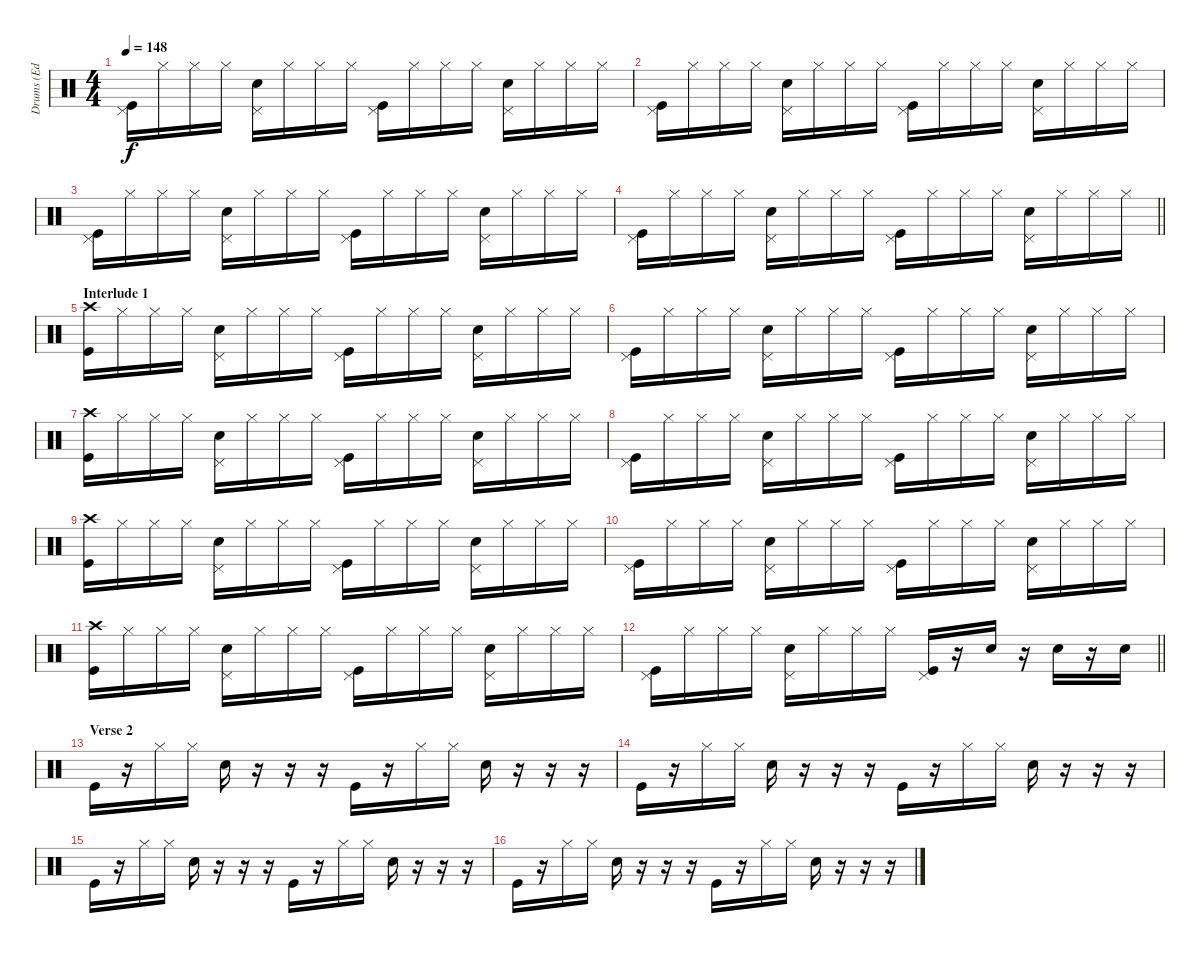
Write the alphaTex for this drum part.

\track ("Drums (Ed Lay)" "Drums (Ed ") {instrument percussion}
\staff {score}
\articulation defaults
\ts (4 4)
\tempo 148
\clef neutral
\ks c
("Pedal Hi-Hat (hit)" "Kick (hit)").16{dy f} "Hi-Hat (closed)".16 "Hi-Hat (closed)".16 "Hi-Hat (closed)".16 ("Pedal Hi-Hat (hit)" "Electric Snare (hit)").16 "Hi-Hat (closed)".16 "Hi-Hat (closed)".16 "Hi-Hat (closed)".16 ("Pedal Hi-Hat (hit)" "Kick (hit)").16 "Hi-Hat (closed)".16 "Hi-Hat (closed)".16 "Hi-Hat (closed)".16 ("Pedal Hi-Hat (hit)" "Electric Snare (hit)").16 "Hi-Hat (closed)".16 "Hi-Hat (closed)".16 "Hi-Hat (closed)".16 |
("Pedal Hi-Hat (hit)" "Kick (hit)").16 "Hi-Hat (closed)".16 "Hi-Hat (closed)".16 "Hi-Hat (closed)".16 ("Pedal Hi-Hat (hit)" "Electric Snare (hit)").16 "Hi-Hat (closed)".16 "Hi-Hat (closed)".16 "Hi-Hat (closed)".16 ("Pedal Hi-Hat (hit)" "Kick (hit)").16 "Hi-Hat (closed)".16 "Hi-Hat (closed)".16 "Hi-Hat (closed)".16 ("Pedal Hi-Hat (hit)" "Electric Snare (hit)").16 "Hi-Hat (closed)".16 "Hi-Hat (closed)".16 "Hi-Hat (closed)".16 |
("Pedal Hi-Hat (hit)" "Kick (hit)").16 "Hi-Hat (closed)".16 "Hi-Hat (closed)".16 "Hi-Hat (closed)".16 ("Pedal Hi-Hat (hit)" "Electric Snare (hit)").16 "Hi-Hat (closed)".16 "Hi-Hat (closed)".16 "Hi-Hat (closed)".16 ("Pedal Hi-Hat (hit)" "Kick (hit)").16 "Hi-Hat (closed)".16 "Hi-Hat (closed)".16 "Hi-Hat (closed)".16 ("Pedal Hi-Hat (hit)" "Electric Snare (hit)").16 "Hi-Hat (closed)".16 "Hi-Hat (closed)".16 "Hi-Hat (closed)".16 |
\barLineRight lightlight
("Pedal Hi-Hat (hit)" "Kick (hit)").16 "Hi-Hat (closed)".16 "Hi-Hat (closed)".16 "Hi-Hat (closed)".16 ("Pedal Hi-Hat (hit)" "Electric Snare (hit)").16 "Hi-Hat (closed)".16 "Hi-Hat (closed)".16 "Hi-Hat (closed)".16 ("Pedal Hi-Hat (hit)" "Kick (hit)").16 "Hi-Hat (closed)".16 "Hi-Hat (closed)".16 "Hi-Hat (closed)".16 ("Pedal Hi-Hat (hit)" "Electric Snare (hit)").16 "Hi-Hat (closed)".16 "Hi-Hat (closed)".16 "Hi-Hat (closed)".16 |
\section ("" "Interlude 1")
("Crash high (hit)" "Kick (hit)").16 "Hi-Hat (closed)".16 "Hi-Hat (closed)".16 "Hi-Hat (closed)".16 ("Pedal Hi-Hat (hit)" "Electric Snare (hit)").16 "Hi-Hat (closed)".16 "Hi-Hat (closed)".16 "Hi-Hat (closed)".16 ("Pedal Hi-Hat (hit)" "Kick (hit)").16 "Hi-Hat (closed)".16 "Hi-Hat (closed)".16 "Hi-Hat (closed)".16 ("Pedal Hi-Hat (hit)" "Electric Snare (hit)").16 "Hi-Hat (closed)".16 "Hi-Hat (closed)".16 "Hi-Hat (closed)".16 |
("Pedal Hi-Hat (hit)" "Kick (hit)").16 "Hi-Hat (closed)".16 "Hi-Hat (closed)".16 "Hi-Hat (closed)".16 ("Pedal Hi-Hat (hit)" "Electric Snare (hit)").16 "Hi-Hat (closed)".16 "Hi-Hat (closed)".16 "Hi-Hat (closed)".16 ("Pedal Hi-Hat (hit)" "Kick (hit)").16 "Hi-Hat (closed)".16 "Hi-Hat (closed)".16 "Hi-Hat (closed)".16 ("Pedal Hi-Hat (hit)" "Electric Snare (hit)").16 "Hi-Hat (closed)".16 "Hi-Hat (closed)".16 "Hi-Hat (closed)".16 |
("Crash high (hit)" "Kick (hit)").16 "Hi-Hat (closed)".16 "Hi-Hat (closed)".16 "Hi-Hat (closed)".16 ("Pedal Hi-Hat (hit)" "Electric Snare (hit)").16 "Hi-Hat (closed)".16 "Hi-Hat (closed)".16 "Hi-Hat (closed)".16 ("Pedal Hi-Hat (hit)" "Kick (hit)").16 "Hi-Hat (closed)".16 "Hi-Hat (closed)".16 "Hi-Hat (closed)".16 ("Pedal Hi-Hat (hit)" "Electric Snare (hit)").16 "Hi-Hat (closed)".16 "Hi-Hat (closed)".16 "Hi-Hat (closed)".16 |
("Pedal Hi-Hat (hit)" "Kick (hit)").16 "Hi-Hat (closed)".16 "Hi-Hat (closed)".16 "Hi-Hat (closed)".16 ("Pedal Hi-Hat (hit)" "Electric Snare (hit)").16 "Hi-Hat (closed)".16 "Hi-Hat (closed)".16 "Hi-Hat (closed)".16 ("Pedal Hi-Hat (hit)" "Kick (hit)").16 "Hi-Hat (closed)".16 "Hi-Hat (closed)".16 "Hi-Hat (closed)".16 ("Pedal Hi-Hat (hit)" "Electric Snare (hit)").16 "Hi-Hat (closed)".16 "Hi-Hat (closed)".16 "Hi-Hat (closed)".16 |
("Crash high (hit)" "Kick (hit)").16 "Hi-Hat (closed)".16 "Hi-Hat (closed)".16 "Hi-Hat (closed)".16 ("Pedal Hi-Hat (hit)" "Electric Snare (hit)").16 "Hi-Hat (closed)".16 "Hi-Hat (closed)".16 "Hi-Hat (closed)".16 ("Pedal Hi-Hat (hit)" "Kick (hit)").16 "Hi-Hat (closed)".16 "Hi-Hat (closed)".16 "Hi-Hat (closed)".16 ("Pedal Hi-Hat (hit)" "Electric Snare (hit)").16 "Hi-Hat (closed)".16 "Hi-Hat (closed)".16 "Hi-Hat (closed)".16 |
("Pedal Hi-Hat (hit)" "Kick (hit)").16 "Hi-Hat (closed)".16 "Hi-Hat (closed)".16 "Hi-Hat (closed)".16 ("Pedal Hi-Hat (hit)" "Electric Snare (hit)").16 "Hi-Hat (closed)".16 "Hi-Hat (closed)".16 "Hi-Hat (closed)".16 ("Pedal Hi-Hat (hit)" "Kick (hit)").16 "Hi-Hat (closed)".16 "Hi-Hat (closed)".16 "Hi-Hat (closed)".16 ("Pedal Hi-Hat (hit)" "Electric Snare (hit)").16 "Hi-Hat (closed)".16 "Hi-Hat (closed)".16 "Hi-Hat (closed)".16 |
("Crash high (hit)" "Kick (hit)").16 "Hi-Hat (closed)".16 "Hi-Hat (closed)".16 "Hi-Hat (closed)".16 ("Pedal Hi-Hat (hit)" "Electric Snare (hit)").16 "Hi-Hat (closed)".16 "Hi-Hat (closed)".16 "Hi-Hat (closed)".16 ("Pedal Hi-Hat (hit)" "Kick (hit)").16 "Hi-Hat (closed)".16 "Hi-Hat (closed)".16 "Hi-Hat (closed)".16 ("Pedal Hi-Hat (hit)" "Electric Snare (hit)").16 "Hi-Hat (closed)".16 "Hi-Hat (closed)".16 "Hi-Hat (closed)".16 |
\barLineRight lightlight
("Pedal Hi-Hat (hit)" "Kick (hit)").16 "Hi-Hat (closed)".16 "Hi-Hat (closed)".16 "Hi-Hat (closed)".16 ("Pedal Hi-Hat (hit)" "Electric Snare (hit)").16 "Hi-Hat (closed)".16 "Hi-Hat (closed)".16 "Hi-Hat (closed)".16 ("Pedal Hi-Hat (hit)" "Kick (hit)").16 r.16 "Electric Snare (hit)".16 r.16 "Electric Snare (hit)".16 r.16 "Electric Snare (hit)".16 |
\section ("" "Verse 2")
"Kick (hit)".16 r.16 "Hi-Hat (closed)".16 "Hi-Hat (closed)".16 "Electric Snare (hit)".16 r.16 r.16 r.16 "Kick (hit)".16 r.16 "Hi-Hat (closed)".16 "Hi-Hat (closed)".16 "Electric Snare (hit)".16 r.16 r.16 r.16 |
"Kick (hit)".16 r.16 "Hi-Hat (closed)".16 "Hi-Hat (closed)".16 "Electric Snare (hit)".16 r.16 r.16 r.16 "Kick (hit)".16 r.16 "Hi-Hat (closed)".16 "Hi-Hat (closed)".16 "Electric Snare (hit)".16 r.16 r.16 r.16 |
"Kick (hit)".16 r.16 "Hi-Hat (closed)".16 "Hi-Hat (closed)".16 "Electric Snare (hit)".16 r.16 r.16 r.16 "Kick (hit)".16 r.16 "Hi-Hat (closed)".16 "Hi-Hat (closed)".16 "Electric Snare (hit)".16 r.16 r.16 r.16 |
"Kick (hit)".16 r.16 "Hi-Hat (closed)".16 "Hi-Hat (closed)".16 "Electric Snare (hit)".16 r.16 r.16 r.16 "Kick (hit)".16 r.16 "Hi-Hat (closed)".16 "Hi-Hat (closed)".16 "Electric Snare (hit)".16 r.16 r.16 r.16
